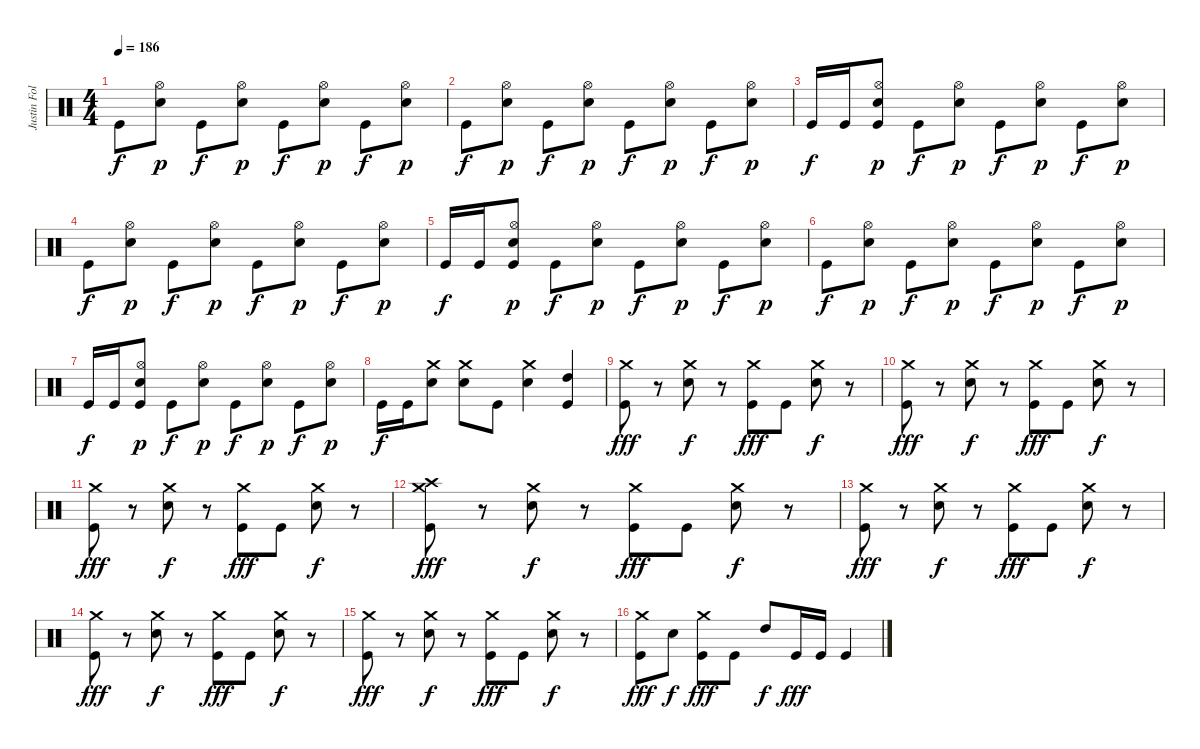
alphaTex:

\track ("Justin Foley" "Justin Fol") {instrument percussion}
\staff {score}
\articulation defaults
\ts (4 4)
\tempo 186
\clef neutral
\ks c "Kick (hit)".8{dy f}
("Hi-Hat (open)" "Electric Snare (hit)").8{dy p} "Kick (hit)".8{dy f} ("Hi-Hat (open)" "Electric Snare (hit)").8{dy p} "Kick (hit)".8{dy f} ("Hi-Hat (open)" "Electric Snare (hit)").8{dy p} "Kick (hit)".8{dy f} ("Hi-Hat (open)" "Electric Snare (hit)").8{dy p} |
"Kick (hit)".8{dy f} ("Hi-Hat (open)" "Electric Snare (hit)").8{dy p} "Kick (hit)".8{dy f} ("Hi-Hat (open)" "Electric Snare (hit)").8{dy p} "Kick (hit)".8{dy f} ("Hi-Hat (open)" "Electric Snare (hit)").8{dy p} "Kick (hit)".8{dy f} ("Hi-Hat (open)" "Electric Snare (hit)").8{dy p} |
"Kick (hit)".16{dy f} "Kick (hit)".16 ("Hi-Hat (open)" "Electric Snare (hit)" "Kick (hit)").8{dy p} "Kick (hit)".8{dy f} ("Hi-Hat (open)" "Electric Snare (hit)").8{dy p} "Kick (hit)".8{dy f} ("Hi-Hat (open)" "Electric Snare (hit)").8{dy p} "Kick (hit)".8{dy f} ("Hi-Hat (open)" "Electric Snare (hit)").8{dy p} |
"Kick (hit)".8{dy f} ("Hi-Hat (open)" "Electric Snare (hit)").8{dy p} "Kick (hit)".8{dy f} ("Hi-Hat (open)" "Electric Snare (hit)").8{dy p} "Kick (hit)".8{dy f} ("Hi-Hat (open)" "Electric Snare (hit)").8{dy p} "Kick (hit)".8{dy f} ("Hi-Hat (open)" "Electric Snare (hit)").8{dy p} |
"Kick (hit)".16{dy f} "Kick (hit)".16 ("Hi-Hat (open)" "Electric Snare (hit)" "Kick (hit)").8{dy p} "Kick (hit)".8{dy f} ("Hi-Hat (open)" "Electric Snare (hit)").8{dy p} "Kick (hit)".8{dy f} ("Hi-Hat (open)" "Electric Snare (hit)").8{dy p} "Kick (hit)".8{dy f} ("Hi-Hat (open)" "Electric Snare (hit)").8{dy p} |
"Kick (hit)".8{dy f} ("Hi-Hat (open)" "Electric Snare (hit)").8{dy p} "Kick (hit)".8{dy f} ("Hi-Hat (open)" "Electric Snare (hit)").8{dy p} "Kick (hit)".8{dy f} ("Hi-Hat (open)" "Electric Snare (hit)").8{dy p} "Kick (hit)".8{dy f} ("Hi-Hat (open)" "Electric Snare (hit)").8{dy p} |
"Kick (hit)".16{dy f} "Kick (hit)".16 ("Hi-Hat (open)" "Electric Snare (hit)" "Kick (hit)").8{dy p} "Kick (hit)".8{dy f} ("Hi-Hat (open)" "Electric Snare (hit)").8{dy p} "Kick (hit)".8{dy f} ("Hi-Hat (open)" "Electric Snare (hit)").8{dy p} "Kick (hit)".8{dy f} ("Hi-Hat (open)" "Electric Snare (hit)").8{dy p} |
"Kick (hit)".16{dy f} "Kick (hit)".16 ("Crash medium (hit)" "Electric Snare (hit)").8 ("Crash medium (hit)" "Electric Snare (hit)").8 "Kick (hit)".8 ("Crash medium (hit)" "Electric Snare (hit)").4 ("High Tom (hit)" "Kick (hit)").4 |
("Crash medium (hit)" "Kick (hit)").8{dy fff} r.8 ("Crash medium (hit)" "Electric Snare (hit)").8{dy f} r.8 ("Crash medium (hit)" "Kick (hit)").8{dy fff} "Kick (hit)".8 ("Crash medium (hit)" "Electric Snare (hit)").8{dy f} r.8 |
("Crash medium (hit)" "Kick (hit)").8{dy fff} r.8 ("Crash medium (hit)" "Electric Snare (hit)").8{dy f} r.8 ("Crash medium (hit)" "Kick (hit)").8{dy fff} "Kick (hit)".8 ("Crash medium (hit)" "Electric Snare (hit)").8{dy f} r.8 |
("Crash medium (hit)" "Kick (hit)").8{dy fff} r.8 ("Crash medium (hit)" "Electric Snare (hit)").8{dy f} r.8 ("Crash medium (hit)" "Kick (hit)").8{dy fff} "Kick (hit)".8 ("Crash medium (hit)" "Electric Snare (hit)").8{dy f} r.8 |
("Crash medium (hit)" "Crash high (hit)" "Kick (hit)").8{dy fff} r.8 ("Crash medium (hit)" "Electric Snare (hit)").8{dy f} r.8 ("Crash medium (hit)" "Kick (hit)").8{dy fff} "Kick (hit)".8 ("Crash medium (hit)" "Electric Snare (hit)").8{dy f} r.8 |
("Crash medium (hit)" "Kick (hit)").8{dy fff} r.8 ("Crash medium (hit)" "Electric Snare (hit)").8{dy f} r.8 ("Crash medium (hit)" "Kick (hit)").8{dy fff} "Kick (hit)".8 ("Crash medium (hit)" "Electric Snare (hit)").8{dy f} r.8 |
("Crash medium (hit)" "Kick (hit)").8{dy fff} r.8 ("Crash medium (hit)" "Electric Snare (hit)").8{dy f} r.8 ("Crash medium (hit)" "Kick (hit)").8{dy fff} "Kick (hit)".8 ("Crash medium (hit)" "Electric Snare (hit)").8{dy f} r.8 |
("Crash medium (hit)" "Kick (hit)").8{dy fff} r.8 ("Crash medium (hit)" "Electric Snare (hit)").8{dy f} r.8 ("Crash medium (hit)" "Kick (hit)").8{dy fff} "Kick (hit)".8 ("Crash medium (hit)" "Electric Snare (hit)").8{dy f} r.8 |
("Crash medium (hit)" "Kick (hit)").8{dy fff} "Electric Snare (hit)".8{dy f} ("Crash medium (hit)" "Kick (hit)").8{dy fff} "Kick (hit)".8 "High Tom (hit)".8{dy f} "Kick (hit)".16{dy fff} "Kick (hit)".16 "Kick (hit)".4
